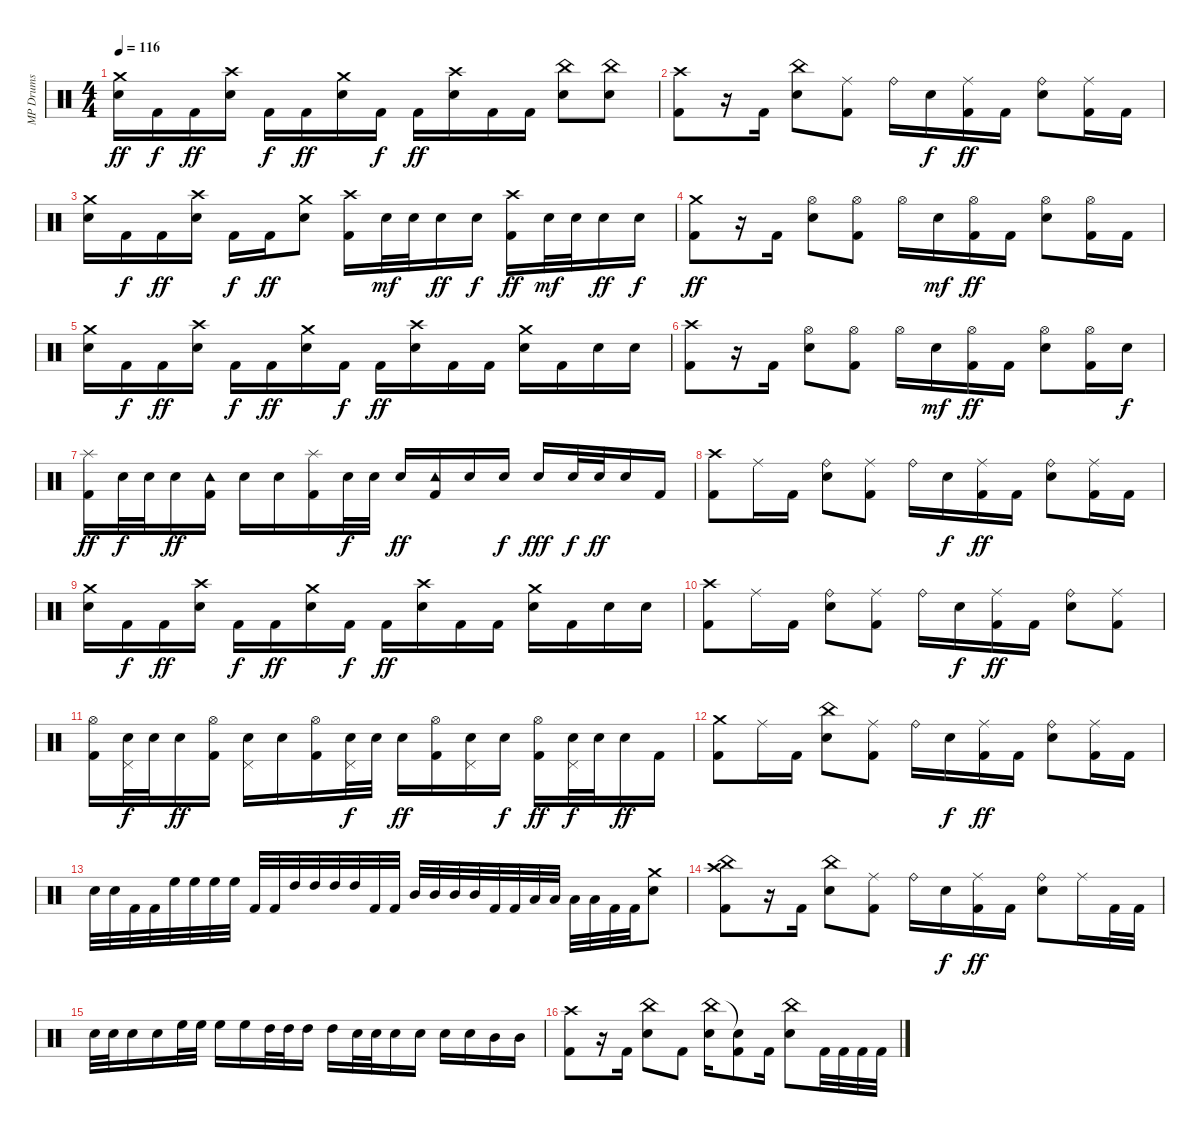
\track ("MP Drums" "MP Drums") {instrument percussion}
\staff {score}
\articulation defaults
\ts (4 4)
\tempo 116
\clef neutral
\ks c
("Crash medium (hit)" "Snare (hit) 2").16{dy ff} "Kick (hit) 2".16{dy f} "Kick (hit) 2".16{dy ff} ("Crash high (hit)" "Snare (hit) 2").16 "Kick (hit) 2".16{dy f} "Kick (hit) 2".16{dy ff} ("Crash medium (hit)" "Snare (hit) 2").16 "Kick (hit) 2".16{dy f} "Kick (hit) 2".16{dy ff} ("Crash high (hit)" "Snare (hit) 2").16 "Kick (hit) 2".16 "Kick (hit) 2".16 ("China (hit)" "Snare (hit) 2").8 ("China (hit)" "Snare (hit) 2").8 |
("Crash high (hit)" "Kick (hit) 2").8 r.16 "Kick (hit) 2".16 ("China (hit)" "Snare (hit) 2").8 ("Ride (middle)" "Kick (hit) 2").8 "Ride (bell)".16 "Snare (hit) 2".16{dy f} ("Ride (middle)" "Kick (hit) 2").16{dy ff} "Kick (hit) 2".16 ("Ride (bell)" "Snare (hit) 2").8 ("Ride (middle)" "Kick (hit) 2").16 "Kick (hit) 2".16 |
("Crash medium (hit)" "Snare (hit) 2").16 "Kick (hit) 2".16{dy f} "Kick (hit) 2".16{dy ff} ("Crash high (hit)" "Snare (hit) 2").16 "Kick (hit) 2".16{dy f} "Kick (hit) 2".16{dy ff} ("Crash medium (hit)" "Snare (hit) 2").8 ("Crash high (hit)" "Kick (hit) 2").16 "Snare (hit) 2".32{dy mf} "Snare (hit) 2".32 "Snare (hit) 2".16{dy ff} "Snare (hit) 2".16{dy f} ("Crash high (hit)" "Kick (hit) 2").16{dy ff} "Snare (hit) 2".32{dy mf} "Snare (hit) 2".32 "Snare (hit) 2".16{dy ff} "Snare (hit) 2".16{dy f} |
("Crash medium (hit)" "Kick (hit) 2").8{dy ff} r.16 "Kick (hit) 2".16 ("Hi-Hat (open)" "Snare (hit) 2").8 ("Hi-Hat (open)" "Kick (hit) 2").8 "Hi-Hat (open)".16 "Snare (hit) 2".16{dy mf} ("Hi-Hat (open)" "Kick (hit) 2").16{dy ff} "Kick (hit) 2".16 ("Hi-Hat (open)" "Snare (hit) 2").8 ("Hi-Hat (open)" "Kick (hit) 2").16 "Kick (hit) 2".16 |
("Crash medium (hit)" "Snare (hit) 2").16 "Kick (hit) 2".16{dy f} "Kick (hit) 2".16{dy ff} ("Crash high (hit)" "Snare (hit) 2").16 "Kick (hit) 2".16{dy f} "Kick (hit) 2".16{dy ff} ("Crash medium (hit)" "Snare (hit) 2").16 "Kick (hit) 2".16{dy f} "Kick (hit) 2".16{dy ff} ("Crash high (hit)" "Snare (hit) 2").16 "Kick (hit) 2".16 "Kick (hit) 2".16 ("Crash medium (hit)" "Snare (hit) 2").16 "Kick (hit) 2".16 "Snare (hit) 2".16 "Snare (hit) 2".16 |
("Crash high (hit)" "Kick (hit) 2").8 r.16 "Kick (hit) 2".16 ("Hi-Hat (open)" "Snare (hit) 2").8 ("Hi-Hat (open)" "Kick (hit) 2").8 "Hi-Hat (open)".16 "Snare (hit) 2".16{dy mf} ("Hi-Hat (open)" "Kick (hit) 2").16{dy ff} "Kick (hit) 2".16 ("Hi-Hat (open)" "Snare (hit) 2").8 ("Hi-Hat (open)" "Kick (hit) 2").16 "Snare (hit) 2".16{dy f} |
("Splash (hit)" "Kick (hit) 2").16{dy ff} "Snare (hit) 2".32{dy f} "Snare (hit) 2".32 "Snare (hit) 2".16{dy ff} ("Tambourine (hit)" "Kick (hit) 2").16 "Snare (hit) 2".16 "Snare (hit) 2".16 ("Splash (hit)" "Kick (hit) 2").16 "Snare (hit) 2".32{dy f} "Snare (hit) 2".32 "Snare (hit) 2".16{dy ff} ("Tambourine (hit)" "Kick (hit) 2").16 "Snare (hit) 2".16 "Snare (hit) 2".16{dy f} "Snare (hit) 2".16{dy fff} "Snare (hit) 2".32{dy f} "Snare (hit) 2".32{dy ff} "Snare (hit) 2".16 "Kick (hit) 2".16 |
("Crash high (hit)" "Kick (hit) 2").8 "Ride (middle)".16 "Kick (hit) 2".16 ("Ride (bell)" "Snare (hit) 2").8 ("Ride (middle)" "Kick (hit) 2").8 "Ride (bell)".16 "Snare (hit) 2".16{dy f} ("Ride (middle)" "Kick (hit) 2").16{dy ff} "Kick (hit) 2".16 ("Ride (bell)" "Snare (hit) 2").8 ("Ride (middle)" "Kick (hit) 2").16 "Kick (hit) 2".16 |
("Crash medium (hit)" "Snare (hit) 2").16 "Kick (hit) 2".16{dy f} "Kick (hit) 2".16{dy ff} ("Crash high (hit)" "Snare (hit) 2").16 "Kick (hit) 2".16{dy f} "Kick (hit) 2".16{dy ff} ("Crash medium (hit)" "Snare (hit) 2").16 "Kick (hit) 2".16{dy f} "Kick (hit) 2".16{dy ff} ("Crash high (hit)" "Snare (hit) 2").16 "Kick (hit) 2".16 "Kick (hit) 2".16 ("Crash medium (hit)" "Snare (hit) 2").16 "Kick (hit) 2".16 "Snare (hit) 2".16 "Snare (hit) 2".16 |
("Crash high (hit)" "Kick (hit) 2").8 "Ride (middle)".16 "Kick (hit) 2".16 ("Ride (bell)" "Snare (hit) 2").8 ("Ride (middle)" "Kick (hit) 2").8 "Ride (bell)".16 "Snare (hit) 2".16{dy f} ("Ride (middle)" "Kick (hit) 2").16{dy ff} "Kick (hit) 2".16 ("Ride (bell)" "Snare (hit) 2").8 ("Ride (middle)" "Kick (hit) 2").8 |
("Hi-Hat (open)" "Kick (hit) 2").16 ("Pedal Hi-Hat (hit)" "Snare (hit) 2").32{dy f} "Snare (hit) 2".32 "Snare (hit) 2".16{dy ff} ("Hi-Hat (open)" "Kick (hit) 2").16 ("Pedal Hi-Hat (hit)" "Snare (hit) 2").16 "Snare (hit) 2".16 ("Hi-Hat (open)" "Kick (hit) 2").16 ("Pedal Hi-Hat (hit)" "Snare (hit) 2").32{dy f} "Snare (hit) 2".32 "Snare (hit) 2".16{dy ff} ("Hi-Hat (open)" "Kick (hit) 2").16 ("Pedal Hi-Hat (hit)" "Snare (hit) 2").16 "Snare (hit) 2".16{dy f} ("Hi-Hat (open)" "Kick (hit) 2").16{dy ff} ("Pedal Hi-Hat (hit)" "Snare (hit) 2").32{dy f} "Snare (hit) 2".32 "Snare (hit) 2".16{dy ff} "Kick (hit) 2".16 |
("Crash medium (hit)" "Kick (hit) 2").8 "Ride (middle)".16 "Kick (hit) 2".16 ("China (hit)" "Snare (hit) 2").8 ("Ride (middle)" "Kick (hit) 2").8 "Ride (bell)".16 "Snare (hit) 2".16{dy f} ("Ride (middle)" "Kick (hit) 2").16{dy ff} "Kick (hit) 2".16 ("Ride (bell)" "Snare (hit) 2").8 ("Ride (middle)" "Kick (hit) 2").16 "Kick (hit) 2".16 |
"Snare (hit) 2".32 "Snare (hit) 2".32 "Kick (hit) 2".32 "Kick (hit) 2".32 "High Floor Tom (hit)".32 "High Floor Tom (hit)".32 "High Floor Tom (hit)".32 "High Floor Tom (hit)".32 "Kick (hit) 2".32 "Kick (hit) 2".32 "High Tom (hit)".32 "High Tom (hit)".32 "High Tom (hit)".32 "High Tom (hit)".32 "Kick (hit) 2".32 "Kick (hit) 2".32 "Mid Tom (hit)".32 "Mid Tom (hit)".32 "Mid Tom (hit)".32 "Mid Tom (hit)".32 "Kick (hit) 2".32 "Kick (hit) 2".32 "Low Tom (hit)".32 "Low Tom (hit)".32 "Low Tom (hit)".32 "Low Tom (hit)".32 "Kick (hit) 2".32 "Kick (hit) 2".32 ("Crash medium (hit)" "Snare (hit) 2").8 |
("Crash high (hit)" "China (hit)" "Kick (hit) 2").8 r.16 "Kick (hit) 2".16 ("China (hit)" "Snare (hit) 2").8 ("Ride (middle)" "Kick (hit) 2").8 "Ride (bell)".16 "Snare (hit) 2".16{dy f} ("Ride (middle)" "Kick (hit) 2").16{dy ff} "Kick (hit) 2".16 ("Ride (bell)" "Snare (hit) 2").8 "Ride (middle)".16 "Kick (hit) 2".32 "Kick (hit) 2".32 |
"Snare (hit) 2".32 "Snare (hit) 2".32 "Snare (hit) 2".16 "Snare (hit) 2".16 "High Floor Tom (hit)".32 "High Floor Tom (hit)".32 "High Floor Tom (hit)".16 "High Floor Tom (hit)".16 "High Tom (hit)".32 "High Tom (hit)".32 "High Tom (hit)".16 "High Tom (hit)".16 "Snare (hit) 2".32 "Snare (hit) 2".32 "Snare (hit) 2".16 "Snare (hit) 2".16 "Snare (hit) 2".16 "Snare (hit) 2".16 "Mid Tom (hit)".16 "Mid Tom (hit)".16 |
("Crash high (hit)" "Kick (hit) 2").8 r.16 "Kick (hit) 2".16 ("China (hit)" "Snare (hit) 2").8 "Kick (hit) 2".8 ("China (hit)" "Snare (hit) 2").16 ("Snare (hit)"{t} "Kick (hit) 2").8 "Kick (hit) 2".16 ("China (hit)" "Snare (hit) 2").8 "Kick (hit) 2".32 "Kick (hit) 2".32 "Kick (hit) 2".32 "Kick (hit) 2".32
